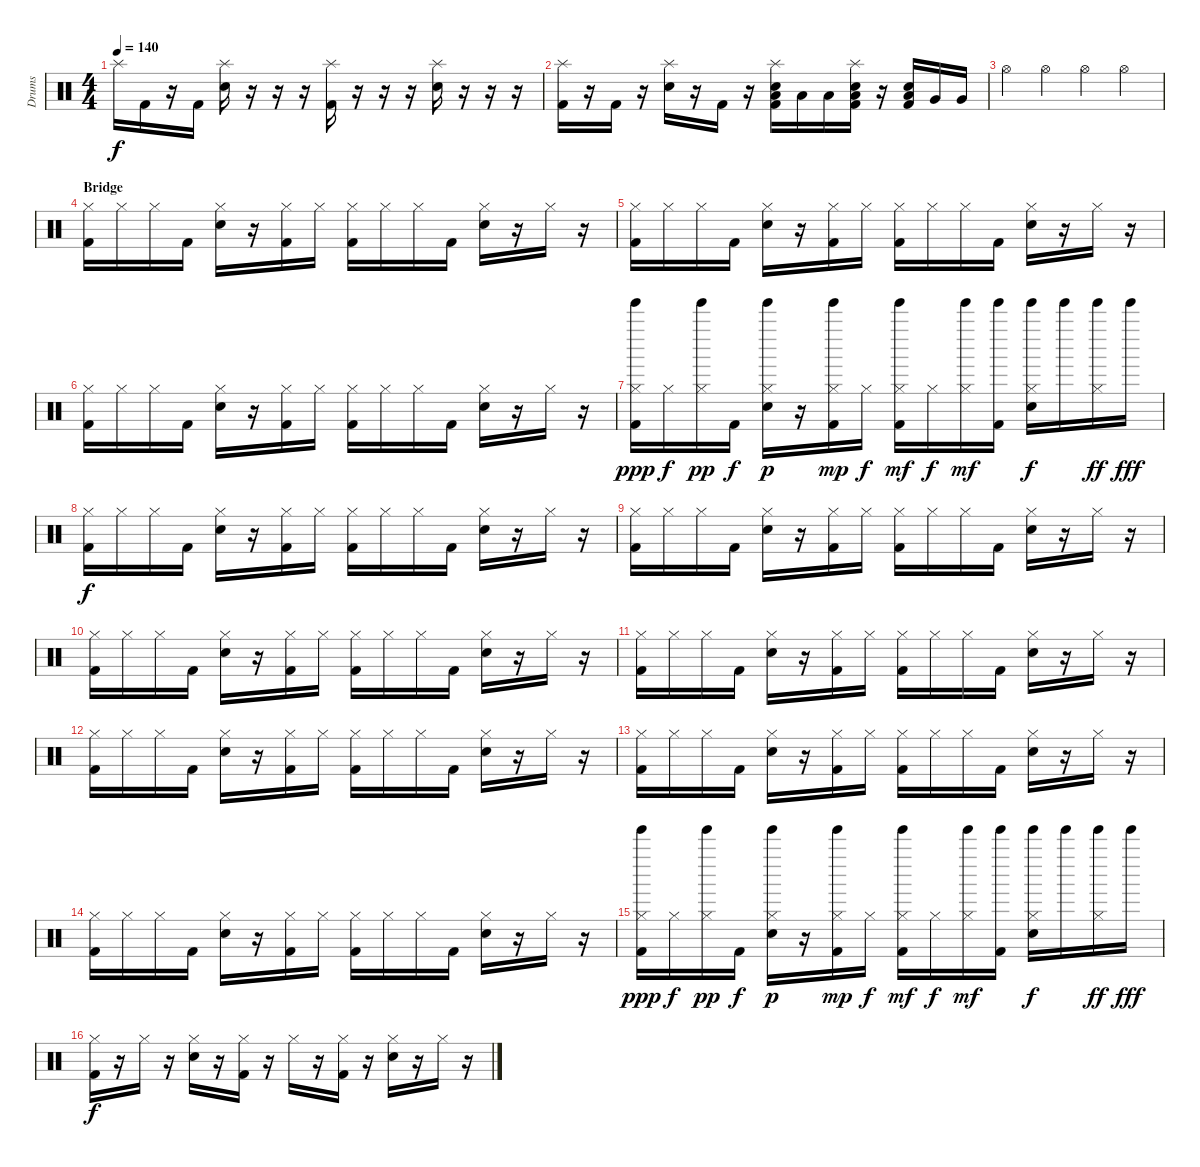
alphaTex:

\track ("Drums" "Drums") {instrument percussion}
\staff {score}
\articulation defaults
\ts (4 4)
\tempo 140
\clef neutral
\ks c "Splash (hit)".16{dy f} "Kick (hit) 2".16
r.16 "Kick (hit) 2".16 ("Snare (hit) 2" "Splash (hit)").16 r.16 r.16 r.16 ("Kick (hit) 2" "Splash (hit)").16 r.16 r.16 r.16 ("Snare (hit) 2" "Splash (hit)").16 r.16 r.16 r.16 |
("Kick (hit) 2" "Splash (hit)").16 r.16 "Kick (hit) 2".16 r.16 ("Snare (hit) 2" "Splash (hit)").16 r.16 "Kick (hit) 2".16 r.16 ("Kick (hit) 2" "Snare (hit) 2" "Low Tom (hit)" "Splash (hit)").16 "Low Tom (hit)".16 "Low Tom (hit)".16 ("Kick (hit) 2" "Snare (hit) 2" "Low Tom (hit)" "Splash (hit)").16 r.16 ("Kick (hit) 2" "Snare (hit) 2" "Low Tom (hit)").16 "Very Low Tom (hit)".16 "Very Low Tom (hit)".16 |
"Hi-Hat (open)".4 "Hi-Hat (open)".4 "Hi-Hat (open)".4 "Hi-Hat (open)".4 |
\section ("" "Bridge")
("Kick (hit) 2" "Hi-Hat (closed)").16{volume 16} "Hi-Hat (closed)".16 "Hi-Hat (closed)".16 "Kick (hit) 2".16 ("Snare (hit) 2" "Hi-Hat (closed)").16 r.16 ("Kick (hit) 2" "Hi-Hat (closed)").16 "Hi-Hat (closed)".16 ("Kick (hit) 2" "Hi-Hat (closed)").16 "Hi-Hat (closed)".16 "Hi-Hat (closed)".16 "Kick (hit) 2".16 ("Snare (hit) 2" "Hi-Hat (closed)").16 r.16 "Hi-Hat (closed)".16 r.16 |
("Kick (hit) 2" "Hi-Hat (closed)").16{volume 16} "Hi-Hat (closed)".16 "Hi-Hat (closed)".16 "Kick (hit) 2".16 ("Snare (hit) 2" "Hi-Hat (closed)").16 r.16 ("Kick (hit) 2" "Hi-Hat (closed)").16 "Hi-Hat (closed)".16 ("Kick (hit) 2" "Hi-Hat (closed)").16 "Hi-Hat (closed)".16 "Hi-Hat (closed)".16 "Kick (hit) 2".16 ("Snare (hit) 2" "Hi-Hat (closed)").16 r.16 "Hi-Hat (closed)".16 r.16 |
("Kick (hit) 2" "Hi-Hat (closed)").16{volume 16} "Hi-Hat (closed)".16 "Hi-Hat (closed)".16 "Kick (hit) 2".16 ("Snare (hit) 2" "Hi-Hat (closed)").16 r.16 ("Kick (hit) 2" "Hi-Hat (closed)").16 "Hi-Hat (closed)".16 ("Kick (hit) 2" "Hi-Hat (closed)").16 "Hi-Hat (closed)".16 "Hi-Hat (closed)".16 "Kick (hit) 2".16 ("Snare (hit) 2" "Hi-Hat (closed)").16 r.16 "Hi-Hat (closed)".16 r.16 |
("Kick (hit) 2" "Tinkle Bell (hit)" "Hi-Hat (closed)").16{dy ppp volume 16} "Hi-Hat (closed)".16{dy f} ("Tinkle Bell (hit)" "Hi-Hat (closed)").16{dy pp} "Kick (hit) 2".16{dy f} ("Snare (hit) 2" "Tinkle Bell (hit)" "Hi-Hat (closed)").16{dy p} r.16 ("Kick (hit) 2" "Tinkle Bell (hit)" "Hi-Hat (closed)").16{dy mp} "Hi-Hat (closed)".16{dy f} ("Kick (hit) 2" "Tinkle Bell (hit)" "Hi-Hat (closed)").16{dy mf} "Hi-Hat (closed)".16{dy f} ("Tinkle Bell (hit)" "Hi-Hat (closed)").16{dy mf} ("Kick (hit) 2" "Tinkle Bell (hit)").16 ("Snare (hit) 2" "Tinkle Bell (hit)" "Hi-Hat (closed)").16{dy f} "Tinkle Bell (hit)".16 ("Tinkle Bell (hit)" "Hi-Hat (closed)").16{dy ff} "Tinkle Bell (hit)".16{dy fff} |
("Kick (hit) 2" "Hi-Hat (closed)").16{dy f volume 16} "Hi-Hat (closed)".16 "Hi-Hat (closed)".16 "Kick (hit) 2".16 ("Snare (hit) 2" "Hi-Hat (closed)").16 r.16 ("Kick (hit) 2" "Hi-Hat (closed)").16 "Hi-Hat (closed)".16 ("Kick (hit) 2" "Hi-Hat (closed)").16 "Hi-Hat (closed)".16 "Hi-Hat (closed)".16 "Kick (hit) 2".16 ("Snare (hit) 2" "Hi-Hat (closed)").16 r.16 "Hi-Hat (closed)".16 r.16 |
("Kick (hit) 2" "Hi-Hat (closed)").16{volume 16} "Hi-Hat (closed)".16 "Hi-Hat (closed)".16 "Kick (hit) 2".16 ("Snare (hit) 2" "Hi-Hat (closed)").16 r.16 ("Kick (hit) 2" "Hi-Hat (closed)").16 "Hi-Hat (closed)".16 ("Kick (hit) 2" "Hi-Hat (closed)").16 "Hi-Hat (closed)".16 "Hi-Hat (closed)".16 "Kick (hit) 2".16 ("Snare (hit) 2" "Hi-Hat (closed)").16 r.16 "Hi-Hat (closed)".16 r.16 |
("Kick (hit) 2" "Hi-Hat (closed)").16{volume 16} "Hi-Hat (closed)".16 "Hi-Hat (closed)".16 "Kick (hit) 2".16 ("Snare (hit) 2" "Hi-Hat (closed)").16 r.16 ("Kick (hit) 2" "Hi-Hat (closed)").16 "Hi-Hat (closed)".16 ("Kick (hit) 2" "Hi-Hat (closed)").16 "Hi-Hat (closed)".16 "Hi-Hat (closed)".16 "Kick (hit) 2".16 ("Snare (hit) 2" "Hi-Hat (closed)").16 r.16 "Hi-Hat (closed)".16 r.16 |
("Kick (hit) 2" "Hi-Hat (closed)").16{volume 16} "Hi-Hat (closed)".16 "Hi-Hat (closed)".16 "Kick (hit) 2".16 ("Snare (hit) 2" "Hi-Hat (closed)").16 r.16 ("Kick (hit) 2" "Hi-Hat (closed)").16 "Hi-Hat (closed)".16 ("Kick (hit) 2" "Hi-Hat (closed)").16 "Hi-Hat (closed)".16 "Hi-Hat (closed)".16 "Kick (hit) 2".16 ("Snare (hit) 2" "Hi-Hat (closed)").16 r.16 "Hi-Hat (closed)".16 r.16 |
("Kick (hit) 2" "Hi-Hat (closed)").16{volume 16} "Hi-Hat (closed)".16 "Hi-Hat (closed)".16 "Kick (hit) 2".16 ("Snare (hit) 2" "Hi-Hat (closed)").16 r.16 ("Kick (hit) 2" "Hi-Hat (closed)").16 "Hi-Hat (closed)".16 ("Kick (hit) 2" "Hi-Hat (closed)").16 "Hi-Hat (closed)".16 "Hi-Hat (closed)".16 "Kick (hit) 2".16 ("Snare (hit) 2" "Hi-Hat (closed)").16 r.16 "Hi-Hat (closed)".16 r.16 |
("Kick (hit) 2" "Hi-Hat (closed)").16{volume 16} "Hi-Hat (closed)".16 "Hi-Hat (closed)".16 "Kick (hit) 2".16 ("Snare (hit) 2" "Hi-Hat (closed)").16 r.16 ("Kick (hit) 2" "Hi-Hat (closed)").16 "Hi-Hat (closed)".16 ("Kick (hit) 2" "Hi-Hat (closed)").16 "Hi-Hat (closed)".16 "Hi-Hat (closed)".16 "Kick (hit) 2".16 ("Snare (hit) 2" "Hi-Hat (closed)").16 r.16 "Hi-Hat (closed)".16 r.16 |
("Kick (hit) 2" "Hi-Hat (closed)").16{volume 16} "Hi-Hat (closed)".16 "Hi-Hat (closed)".16 "Kick (hit) 2".16 ("Snare (hit) 2" "Hi-Hat (closed)").16 r.16 ("Kick (hit) 2" "Hi-Hat (closed)").16 "Hi-Hat (closed)".16 ("Kick (hit) 2" "Hi-Hat (closed)").16 "Hi-Hat (closed)".16 "Hi-Hat (closed)".16 "Kick (hit) 2".16 ("Snare (hit) 2" "Hi-Hat (closed)").16 r.16 "Hi-Hat (closed)".16 r.16 |
("Kick (hit) 2" "Tinkle Bell (hit)" "Hi-Hat (closed)").16{dy ppp volume 16} "Hi-Hat (closed)".16{dy f} ("Tinkle Bell (hit)" "Hi-Hat (closed)").16{dy pp} "Kick (hit) 2".16{dy f} ("Snare (hit) 2" "Tinkle Bell (hit)" "Hi-Hat (closed)").16{dy p} r.16 ("Kick (hit) 2" "Tinkle Bell (hit)" "Hi-Hat (closed)").16{dy mp} "Hi-Hat (closed)".16{dy f} ("Kick (hit) 2" "Tinkle Bell (hit)" "Hi-Hat (closed)").16{dy mf} "Hi-Hat (closed)".16{dy f} ("Tinkle Bell (hit)" "Hi-Hat (closed)").16{dy mf} ("Kick (hit) 2" "Tinkle Bell (hit)").16 ("Snare (hit) 2" "Tinkle Bell (hit)" "Hi-Hat (closed)").16{dy f} "Tinkle Bell (hit)".16 ("Tinkle Bell (hit)" "Hi-Hat (closed)").16{dy ff} "Tinkle Bell (hit)".16{dy fff} |
("Kick (hit) 2" "Hi-Hat (closed)").16{dy f volume 13} r.16 "Hi-Hat (closed)".16 r.16 ("Snare (hit) 2" "Hi-Hat (closed)").16 r.16 ("Kick (hit) 2" "Hi-Hat (closed)").16 r.16 "Hi-Hat (closed)".16 r.16 ("Kick (hit) 2" "Hi-Hat (closed)").16 r.16 ("Snare (hit) 2" "Hi-Hat (closed)").16 r.16 "Hi-Hat (closed)".16 r.16
